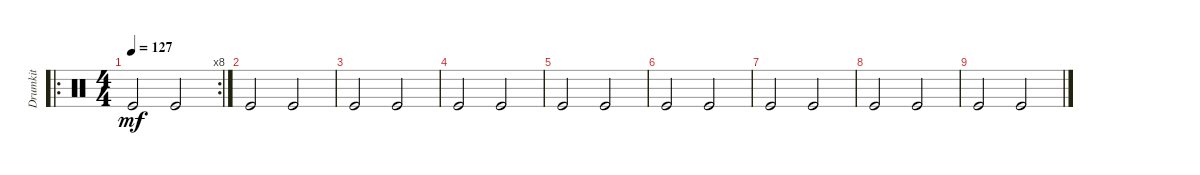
\track ("Drumkit" "Drumkit") {instrument percussion}
\staff {score}
\articulation defaults
\ro
\rc 8
\ts (4 4)
\tempo 127
\clef neutral
\ks c "Kick (hit)".2{dy mf} "Kick (hit)".2
|
"Kick (hit)".2 "Kick (hit)".2 |
"Kick (hit)".2 "Kick (hit)".2 |
"Kick (hit)".2 "Kick (hit)".2 |
"Kick (hit)".2 "Kick (hit)".2 |
"Kick (hit)".2 "Kick (hit)".2 |
"Kick (hit)".2 "Kick (hit)".2 |
"Kick (hit)".2 "Kick (hit)".2 |
"Kick (hit)".2 "Kick (hit)".2
